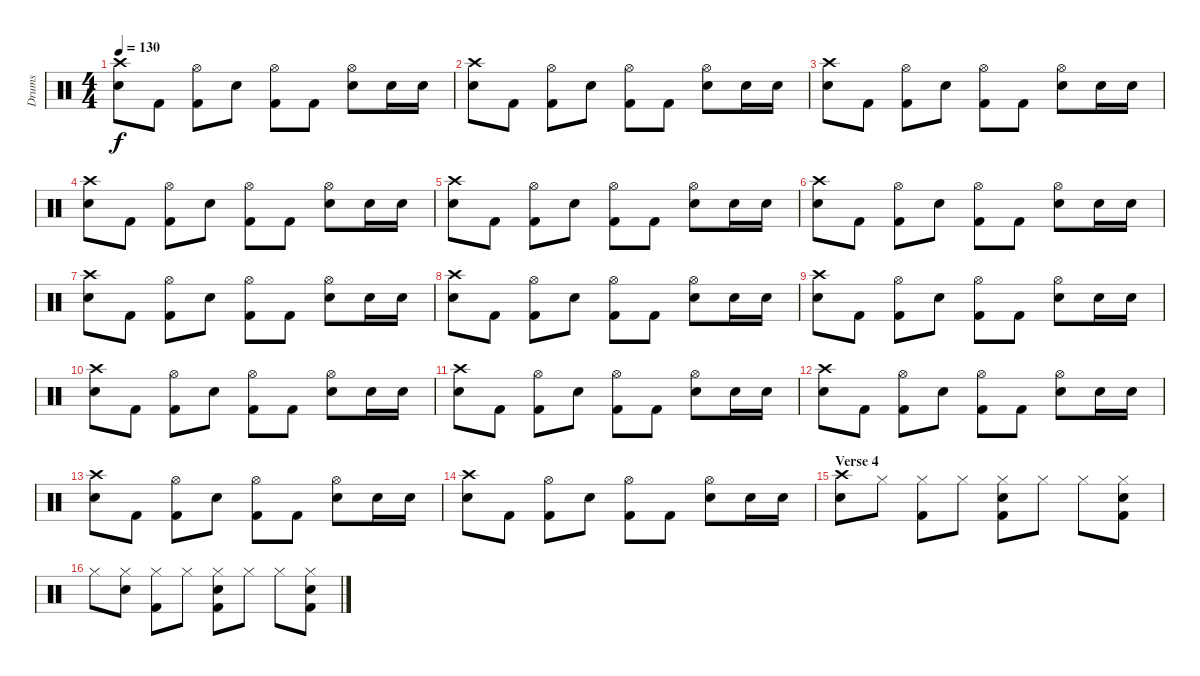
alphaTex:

\track ("Drums" "Drums") {instrument percussion}
\staff {score}
\articulation defaults
\ts (4 4)
\tempo 130
\clef neutral
\ks c
("Crash high (hit)" "Electric Snare (hit)").8{dy f} "Kick (hit) 2".8 ("Hi-Hat (open)" "Kick (hit) 2").8 "Electric Snare (hit)".8 ("Hi-Hat (open)" "Kick (hit) 2").8 "Kick (hit) 2".8 ("Hi-Hat (open)" "Electric Snare (hit)").8 "Electric Snare (hit)".16 "Electric Snare (hit)".16 |
("Crash high (hit)" "Electric Snare (hit)").8 "Kick (hit) 2".8 ("Hi-Hat (open)" "Kick (hit) 2").8 "Electric Snare (hit)".8 ("Hi-Hat (open)" "Kick (hit) 2").8 "Kick (hit) 2".8 ("Hi-Hat (open)" "Electric Snare (hit)").8 "Electric Snare (hit)".16 "Electric Snare (hit)".16 |
("Crash high (hit)" "Electric Snare (hit)").8 "Kick (hit) 2".8 ("Hi-Hat (open)" "Kick (hit) 2").8 "Electric Snare (hit)".8 ("Hi-Hat (open)" "Kick (hit) 2").8 "Kick (hit) 2".8 ("Hi-Hat (open)" "Electric Snare (hit)").8 "Electric Snare (hit)".16 "Electric Snare (hit)".16 |
("Crash high (hit)" "Electric Snare (hit)").8 "Kick (hit) 2".8 ("Hi-Hat (open)" "Kick (hit) 2").8 "Electric Snare (hit)".8 ("Hi-Hat (open)" "Kick (hit) 2").8 "Kick (hit) 2".8 ("Hi-Hat (open)" "Electric Snare (hit)").8 "Electric Snare (hit)".16 "Electric Snare (hit)".16 |
("Crash high (hit)" "Electric Snare (hit)").8 "Kick (hit) 2".8 ("Hi-Hat (open)" "Kick (hit) 2").8 "Electric Snare (hit)".8 ("Hi-Hat (open)" "Kick (hit) 2").8 "Kick (hit) 2".8 ("Hi-Hat (open)" "Electric Snare (hit)").8 "Electric Snare (hit)".16 "Electric Snare (hit)".16 |
("Crash high (hit)" "Electric Snare (hit)").8 "Kick (hit) 2".8 ("Hi-Hat (open)" "Kick (hit) 2").8 "Electric Snare (hit)".8 ("Hi-Hat (open)" "Kick (hit) 2").8 "Kick (hit) 2".8 ("Hi-Hat (open)" "Electric Snare (hit)").8 "Electric Snare (hit)".16 "Electric Snare (hit)".16 |
("Crash high (hit)" "Electric Snare (hit)").8 "Kick (hit) 2".8 ("Hi-Hat (open)" "Kick (hit) 2").8 "Electric Snare (hit)".8 ("Hi-Hat (open)" "Kick (hit) 2").8 "Kick (hit) 2".8 ("Hi-Hat (open)" "Electric Snare (hit)").8 "Electric Snare (hit)".16 "Electric Snare (hit)".16 |
("Crash high (hit)" "Electric Snare (hit)").8 "Kick (hit) 2".8 ("Hi-Hat (open)" "Kick (hit) 2").8 "Electric Snare (hit)".8 ("Hi-Hat (open)" "Kick (hit) 2").8 "Kick (hit) 2".8 ("Hi-Hat (open)" "Electric Snare (hit)").8 "Electric Snare (hit)".16 "Electric Snare (hit)".16 |
("Crash high (hit)" "Electric Snare (hit)").8 "Kick (hit) 2".8 ("Hi-Hat (open)" "Kick (hit) 2").8 "Electric Snare (hit)".8 ("Hi-Hat (open)" "Kick (hit) 2").8 "Kick (hit) 2".8 ("Hi-Hat (open)" "Electric Snare (hit)").8 "Electric Snare (hit)".16 "Electric Snare (hit)".16 |
("Crash high (hit)" "Electric Snare (hit)").8 "Kick (hit) 2".8 ("Hi-Hat (open)" "Kick (hit) 2").8 "Electric Snare (hit)".8 ("Hi-Hat (open)" "Kick (hit) 2").8 "Kick (hit) 2".8 ("Hi-Hat (open)" "Electric Snare (hit)").8 "Electric Snare (hit)".16 "Electric Snare (hit)".16 |
("Crash high (hit)" "Electric Snare (hit)").8 "Kick (hit) 2".8 ("Hi-Hat (open)" "Kick (hit) 2").8 "Electric Snare (hit)".8 ("Hi-Hat (open)" "Kick (hit) 2").8 "Kick (hit) 2".8 ("Hi-Hat (open)" "Electric Snare (hit)").8 "Electric Snare (hit)".16 "Electric Snare (hit)".16 |
("Crash high (hit)" "Electric Snare (hit)").8 "Kick (hit) 2".8 ("Hi-Hat (open)" "Kick (hit) 2").8 "Electric Snare (hit)".8 ("Hi-Hat (open)" "Kick (hit) 2").8 "Kick (hit) 2".8 ("Hi-Hat (open)" "Electric Snare (hit)").8 "Electric Snare (hit)".16 "Electric Snare (hit)".16 |
("Crash high (hit)" "Electric Snare (hit)").8 "Kick (hit) 2".8 ("Hi-Hat (open)" "Kick (hit) 2").8 "Electric Snare (hit)".8 ("Hi-Hat (open)" "Kick (hit) 2").8 "Kick (hit) 2".8 ("Hi-Hat (open)" "Electric Snare (hit)").8 "Electric Snare (hit)".16 "Electric Snare (hit)".16 |
("Crash high (hit)" "Electric Snare (hit)").8 "Kick (hit) 2".8 ("Hi-Hat (open)" "Kick (hit) 2").8 "Electric Snare (hit)".8 ("Hi-Hat (open)" "Kick (hit) 2").8 "Kick (hit) 2".8 ("Hi-Hat (open)" "Electric Snare (hit)").8 "Electric Snare (hit)".16 "Electric Snare (hit)".16 |
\section ("" "Verse 4")
("Crash high (hit)" "Electric Snare (hit)").8 "Hi-Hat (closed)".8 ("Hi-Hat (closed)" "Kick (hit) 2").8 "Hi-Hat (closed)".8 ("Hi-Hat (closed)" "Electric Snare (hit)" "Kick (hit) 2").8 "Hi-Hat (closed)".8 "Hi-Hat (closed)".8 ("Hi-Hat (closed)" "Electric Snare (hit)" "Kick (hit) 2").8 |
"Hi-Hat (closed)".8 ("Hi-Hat (closed)" "Electric Snare (hit)").8 ("Hi-Hat (closed)" "Kick (hit) 2").8 "Hi-Hat (closed)".8 ("Hi-Hat (closed)" "Electric Snare (hit)" "Kick (hit) 2").8 "Hi-Hat (closed)".8 "Hi-Hat (closed)".8 ("Hi-Hat (closed)" "Electric Snare (hit)" "Kick (hit) 2").8
